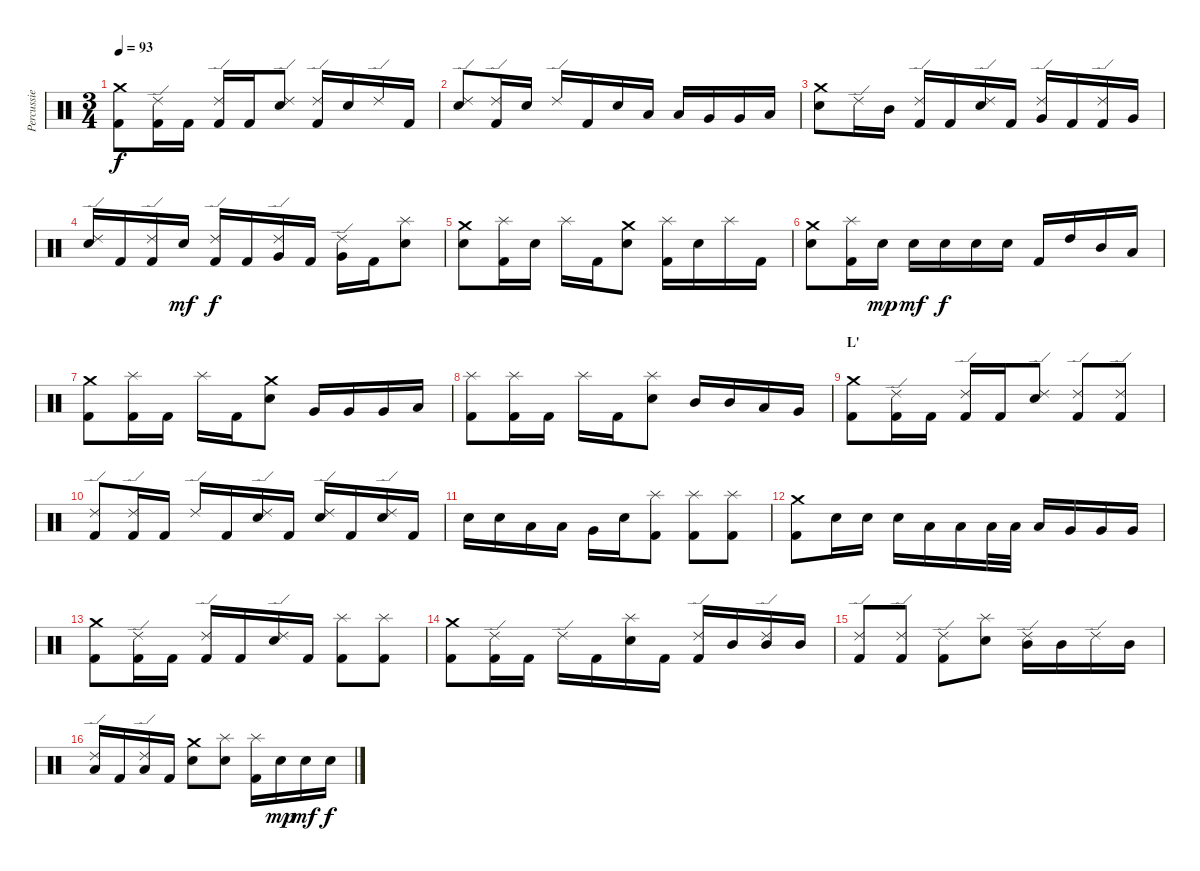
\track ("Percussie" "Percussie") {instrument percussion}
\staff {score}
\articulation defaults
\ts (3 4)
\tempo 93
\clef neutral
\ks c
("Crash medium (hit)" "Kick (hit) 2").8{dy f} ("Ride (edge) 2" "Kick (hit) 2").16 "Kick (hit) 2".16 ("Ride (edge) 2" "Kick (hit) 2").16 "Kick (hit) 2".16 ("Ride (edge) 2" "Electric Snare (hit)").8 ("Ride (edge) 2" "Kick (hit) 2").16 "Electric Snare (hit)".16 "Ride (edge) 2".16 "Kick (hit) 2".16 |
("Ride (edge) 2" "Electric Snare (hit)").8 ("Ride (edge) 2" "Kick (hit) 2").16 "Electric Snare (hit)".16 "Ride (edge) 2".16 "Kick (hit) 2".16 "Electric Snare (hit)".16 "Low Tom (hit)".16 "Low Tom (hit)".16 "Very Low Tom (hit)".16 "Very Low Tom (hit)".16 "Low Floor Tom (hit)".16 |
("Crash medium (hit)" "Electric Snare (hit)").8 "Ride (edge) 2".16 "Mid Tom (hit)".16 ("Ride (edge) 2" "Kick (hit) 2").16 "Kick (hit) 2".16 ("Ride (edge) 2" "Electric Snare (hit)").16 "Kick (hit) 2".16 ("Ride (edge) 2" "Very Low Tom (hit)").16 "Kick (hit) 2".16 ("Ride (edge) 2" "Kick (hit) 2").16 "Very Low Tom (hit)".16 |
("Ride (edge) 2" "Electric Snare (hit)").16 "Kick (hit) 2".16 ("Ride (edge) 2" "Kick (hit) 2").16 "Electric Snare (hit)".16{dy mf} ("Ride (edge) 2" "Kick (hit) 2").16{dy f} "Kick (hit) 2".16 ("Ride (edge) 2" "Very Low Tom (hit)").16 "Kick (hit) 2".16 ("Ride (edge) 2" "Very Low Tom (hit)").16 "Kick (hit) 2".16 ("Splash (hit)" "Electric Snare (hit)").8 |
("Crash medium (hit)" "Electric Snare (hit)").8 ("Splash (hit)" "Kick (hit) 2").16 "Electric Snare (hit)".16 "Splash (hit)".16 "Kick (hit) 2".16 ("Crash medium (hit)" "Electric Snare (hit)").8 ("Splash (hit)" "Kick (hit) 2").16 "Electric Snare (hit)".16 "Splash (hit)".16 "Kick (hit) 2".16 |
("Crash medium (hit)" "Electric Snare (hit)").8 ("Splash (hit)" "Kick (hit) 2").16 "Electric Snare (hit)".16{dy mp} "Electric Snare (hit)".16{dy mf} "Electric Snare (hit)".16{dy f} "Electric Snare (hit)".16 "Electric Snare (hit)".16 "Kick (hit) 2".16 "High Tom (hit)".16 "Mid Tom (hit)".16 "Low Tom (hit)".16 |
("Crash medium (hit)" "Kick (hit) 2").8 ("Splash (hit)" "Kick (hit) 2").16 "Kick (hit) 2".16 "Splash (hit)".16 "Kick (hit) 2".16 ("Crash medium (hit)" "Electric Snare (hit)").8 "Very Low Tom (hit)".16 "Very Low Tom (hit)".16 "Very Low Tom (hit)".16 "Low Tom (hit)".16 |
("Splash (hit)" "Kick (hit) 2").8 ("Splash (hit)" "Kick (hit) 2").16 "Kick (hit) 2".16 "Splash (hit)".16 "Kick (hit) 2".16 ("Splash (hit)" "Electric Snare (hit)").8 "Mid Tom (hit)".16 "Mid Tom (hit)".16 "Low Tom (hit)".16 "Very Low Tom (hit)".16 |
\section ("" "L'")
("Crash medium (hit)" "Kick (hit) 2").8 ("Ride (edge) 2" "Kick (hit) 2").16 "Kick (hit) 2".16 ("Ride (edge) 2" "Kick (hit) 2").16 "Kick (hit) 2".16 ("Ride (edge) 2" "Electric Snare (hit)").8 ("Ride (edge) 2" "Kick (hit) 2").8 ("Ride (edge) 2" "Kick (hit) 2").8 |
("Ride (edge) 2" "Kick (hit) 2").8 ("Ride (edge) 2" "Kick (hit) 2").16 "Kick (hit) 2".16 "Ride (edge) 2".16 "Kick (hit) 2".16 ("Ride (edge) 2" "Electric Snare (hit)").16 "Kick (hit) 2".16 ("Ride (edge) 2" "Electric Snare (hit)").16 "Kick (hit) 2".16 ("Ride (edge) 2" "Electric Snare (hit)").16 "Kick (hit) 2".16 |
"Electric Snare (hit)".16 "Electric Snare (hit)".16 "Low Tom (hit)".16 "Low Tom (hit)".16 "Very Low Tom (hit)".16 "Electric Snare (hit)".16 ("Splash (hit)" "Kick (hit) 2").8 ("Splash (hit)" "Kick (hit) 2").8 ("Splash (hit)" "Kick (hit) 2").8 |
("Crash medium (hit)" "Kick (hit) 2").8 "Electric Snare (hit)".16 "Electric Snare (hit)".16 "Electric Snare (hit)".16 "Low Tom (hit)".16 "Low Tom (hit)".16 "Low Tom (hit)".32 "Low Tom (hit)".32 "Low Tom (hit)".16 "Very Low Tom (hit)".16 "Very Low Tom (hit)".16 "Very Low Tom (hit)".16 |
("Crash medium (hit)" "Kick (hit) 2").8 ("Ride (edge) 2" "Kick (hit) 2").16 "Kick (hit) 2".16 ("Ride (edge) 2" "Kick (hit) 2").16 "Kick (hit) 2".16 ("Ride (edge) 2" "Electric Snare (hit)").16 "Kick (hit) 2".16 ("Splash (hit)" "Kick (hit) 2").8 ("Splash (hit)" "Kick (hit) 2").8 |
("Crash medium (hit)" "Kick (hit) 2").8 ("Ride (edge) 2" "Kick (hit) 2").16 "Kick (hit) 2".16 "Ride (edge) 2".16 "Kick (hit) 2".16 ("Splash (hit)" "Electric Snare (hit)").16 "Kick (hit) 2".16 ("Ride (edge) 2" "Kick (hit) 2").16 "Mid Tom (hit)".16 ("Ride (edge) 2" "Mid Tom (hit)").16 "Mid Tom (hit)".16 |
("Ride (edge) 2" "Kick (hit) 2").8 ("Ride (edge) 2" "Kick (hit) 2").8 ("Ride (edge) 2" "Kick (hit) 2").8 ("Splash (hit)" "Electric Snare (hit)").8 ("Ride (edge) 2" "Mid Tom (hit)").16 "Mid Tom (hit)".16 "Ride (edge) 2".16 "Mid Tom (hit)".16 |
("Ride (edge) 2" "Low Floor Tom (hit)").16 "Kick (hit) 2".16 ("Ride (edge) 2" "Low Floor Tom (hit)").16 "Kick (hit) 2".16 ("Crash medium (hit)" "Electric Snare (hit)").8 ("Splash (hit)" "Electric Snare (hit)").8 ("Splash (hit)" "Kick (hit) 2").16 "Electric Snare (hit)".16{dy mp} "Electric Snare (hit)".16{dy mf} "Electric Snare (hit)".16{dy f}
